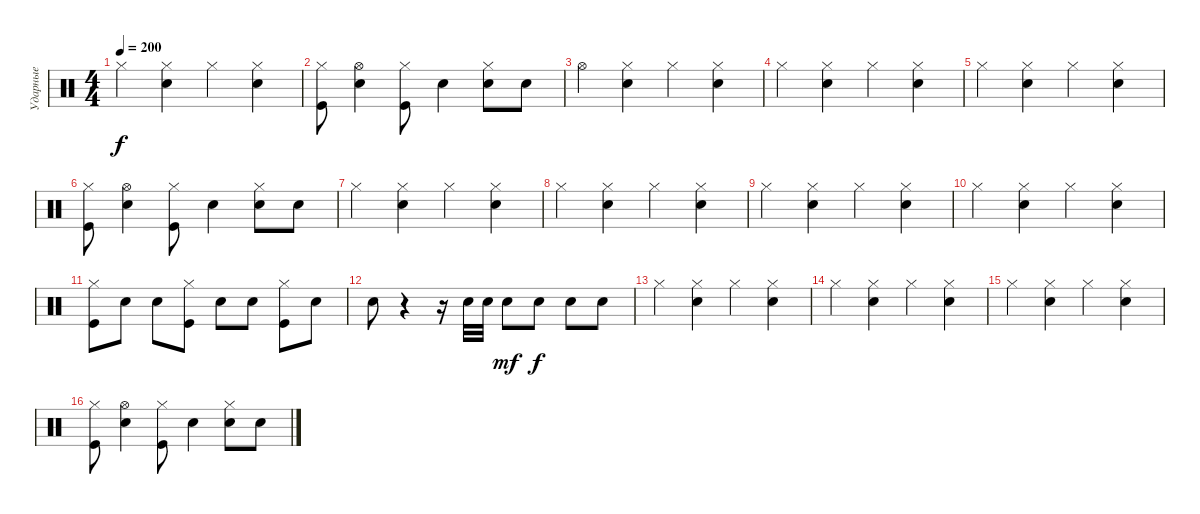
\track ("Ударные" "Ударные") {instrument percussion}
\staff {score}
\articulation defaults
\ts (4 4)
\tempo 200
\clef neutral
\ks c "Hi-Hat (closed)".4{dy f}
("Snare (hit) 2" "Hi-Hat (closed)").4 "Hi-Hat (closed)".4 ("Snare (hit) 2" "Hi-Hat (closed)").4 |
("Kick (hit)" "Hi-Hat (closed)").8 ("Hi-Hat (open)" "Electric Snare (hit)").4 ("Kick (hit)" "Hi-Hat (closed)").8 "Electric Snare (hit)".4 ("Electric Snare (hit)" "Hi-Hat (closed)").8 "Electric Snare (hit)".8 |
"Hi-Hat (open)".4 ("Snare (hit) 2" "Hi-Hat (closed)").4 "Hi-Hat (closed)".4 ("Snare (hit) 2" "Hi-Hat (closed)").4 |
"Hi-Hat (closed)".4 ("Snare (hit) 2" "Hi-Hat (closed)").4 "Hi-Hat (closed)".4 ("Snare (hit) 2" "Hi-Hat (closed)").4 |
"Hi-Hat (closed)".4 ("Snare (hit) 2" "Hi-Hat (closed)").4 "Hi-Hat (closed)".4 ("Snare (hit) 2" "Hi-Hat (closed)").4 |
("Kick (hit)" "Hi-Hat (closed)").8 ("Hi-Hat (open)" "Electric Snare (hit)").4 ("Kick (hit)" "Hi-Hat (closed)").8 "Electric Snare (hit)".4 ("Electric Snare (hit)" "Hi-Hat (closed)").8 "Electric Snare (hit)".8 |
"Hi-Hat (closed)".4 ("Snare (hit) 2" "Hi-Hat (closed)").4 "Hi-Hat (closed)".4 ("Snare (hit) 2" "Hi-Hat (closed)").4 |
"Hi-Hat (closed)".4 ("Snare (hit) 2" "Hi-Hat (closed)").4 "Hi-Hat (closed)".4 ("Snare (hit) 2" "Hi-Hat (closed)").4 |
"Hi-Hat (closed)".4 ("Snare (hit) 2" "Hi-Hat (closed)").4 "Hi-Hat (closed)".4 ("Snare (hit) 2" "Hi-Hat (closed)").4 |
"Hi-Hat (closed)".4 ("Snare (hit) 2" "Hi-Hat (closed)").4 "Hi-Hat (closed)".4 ("Snare (hit) 2" "Hi-Hat (closed)").4 |
("Hi-Hat (closed)" "Kick (hit)").8 "Electric Snare (hit)".8 "Electric Snare (hit)".8 ("Hi-Hat (closed)" "Kick (hit)").8 "Electric Snare (hit)".8 "Electric Snare (hit)".8 ("Hi-Hat (closed)" "Kick (hit)").8 "Electric Snare (hit)".8 |
"Electric Snare (hit)".8 r.4 r.16 "Electric Snare (hit)".32 "Electric Snare (hit)".32 "Electric Snare (hit)".8{dy mf} "Electric Snare (hit)".8{dy f} "Electric Snare (hit)".8 "Electric Snare (hit)".8 |
"Hi-Hat (closed)".4 ("Snare (hit) 2" "Hi-Hat (closed)").4 "Hi-Hat (closed)".4 ("Snare (hit) 2" "Hi-Hat (closed)").4 |
"Hi-Hat (closed)".4 ("Snare (hit) 2" "Hi-Hat (closed)").4 "Hi-Hat (closed)".4 ("Snare (hit) 2" "Hi-Hat (closed)").4 |
"Hi-Hat (closed)".4 ("Snare (hit) 2" "Hi-Hat (closed)").4 "Hi-Hat (closed)".4 ("Snare (hit) 2" "Hi-Hat (closed)").4 |
("Kick (hit)" "Hi-Hat (closed)").8 ("Hi-Hat (open)" "Electric Snare (hit)").4 ("Kick (hit)" "Hi-Hat (closed)").8 "Electric Snare (hit)".4 ("Electric Snare (hit)" "Hi-Hat (closed)").8 "Electric Snare (hit)".8
